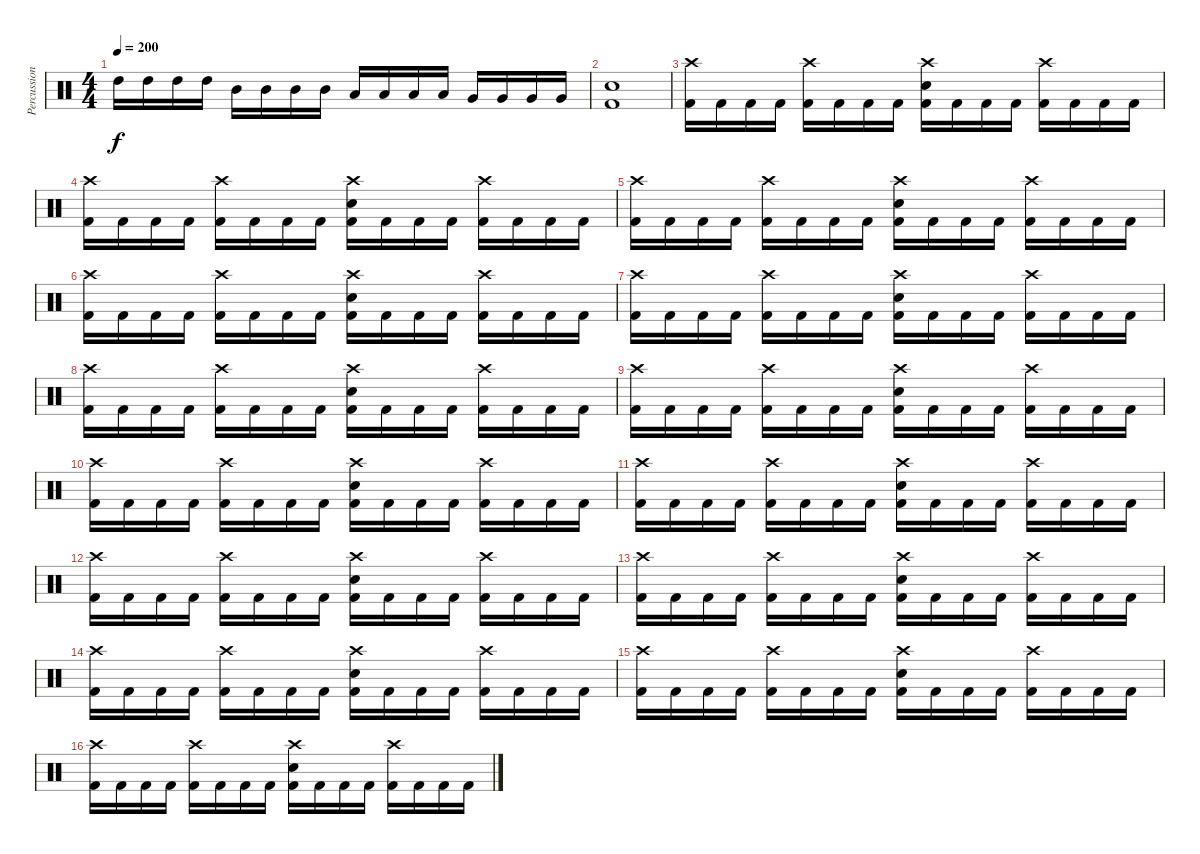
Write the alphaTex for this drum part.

\track ("Percussion" "Percussion") {instrument percussion}
\staff {score}
\articulation defaults
\ts (4 4)
\tempo 200
\clef neutral
\ks c "High Tom (hit)".16{dy f} "High Tom (hit)".16 "High Tom (hit)".16 "High Tom (hit)".16 "Mid Tom (hit)".16 "Mid Tom (hit)".16 "Mid Tom (hit)".16 "Mid Tom (hit)".16 "Low Tom (hit)".16 "Low Tom (hit)".16 "Low Tom (hit)".16 "Low Tom (hit)".16 "Very Low Tom (hit)".16 "Very Low Tom (hit)".16 "Very Low Tom (hit)".16 "Very Low Tom (hit)".16
|
("Snare (hit) 2" "Kick (hit) 2").1 |
("Crash high (hit)" "Kick (hit) 2").16 "Kick (hit) 2".16 "Kick (hit) 2".16 "Kick (hit) 2".16 ("Crash high (hit)" "Kick (hit) 2").16 "Kick (hit) 2".16 "Kick (hit) 2".16 "Kick (hit) 2".16 ("Crash high (hit)" "Kick (hit) 2" "Snare (hit) 2").16 "Kick (hit) 2".16 "Kick (hit) 2".16 "Kick (hit) 2".16 ("Crash high (hit)" "Kick (hit) 2").16 "Kick (hit) 2".16 "Kick (hit) 2".16 "Kick (hit) 2".16 |
("Crash high (hit)" "Kick (hit) 2").16 "Kick (hit) 2".16 "Kick (hit) 2".16 "Kick (hit) 2".16 ("Crash high (hit)" "Kick (hit) 2").16 "Kick (hit) 2".16 "Kick (hit) 2".16 "Kick (hit) 2".16 ("Crash high (hit)" "Kick (hit) 2" "Snare (hit) 2").16 "Kick (hit) 2".16 "Kick (hit) 2".16 "Kick (hit) 2".16 ("Crash high (hit)" "Kick (hit) 2").16 "Kick (hit) 2".16 "Kick (hit) 2".16 "Kick (hit) 2".16 |
("Crash high (hit)" "Kick (hit) 2").16 "Kick (hit) 2".16 "Kick (hit) 2".16 "Kick (hit) 2".16 ("Crash high (hit)" "Kick (hit) 2").16 "Kick (hit) 2".16 "Kick (hit) 2".16 "Kick (hit) 2".16 ("Crash high (hit)" "Kick (hit) 2" "Snare (hit) 2").16 "Kick (hit) 2".16 "Kick (hit) 2".16 "Kick (hit) 2".16 ("Crash high (hit)" "Kick (hit) 2").16 "Kick (hit) 2".16 "Kick (hit) 2".16 "Kick (hit) 2".16 |
("Crash high (hit)" "Kick (hit) 2").16 "Kick (hit) 2".16 "Kick (hit) 2".16 "Kick (hit) 2".16 ("Crash high (hit)" "Kick (hit) 2").16 "Kick (hit) 2".16 "Kick (hit) 2".16 "Kick (hit) 2".16 ("Crash high (hit)" "Kick (hit) 2" "Snare (hit) 2").16 "Kick (hit) 2".16 "Kick (hit) 2".16 "Kick (hit) 2".16 ("Crash high (hit)" "Kick (hit) 2").16 "Kick (hit) 2".16 "Kick (hit) 2".16 "Kick (hit) 2".16 |
("Crash high (hit)" "Kick (hit) 2").16 "Kick (hit) 2".16 "Kick (hit) 2".16 "Kick (hit) 2".16 ("Crash high (hit)" "Kick (hit) 2").16 "Kick (hit) 2".16 "Kick (hit) 2".16 "Kick (hit) 2".16 ("Crash high (hit)" "Kick (hit) 2" "Snare (hit) 2").16 "Kick (hit) 2".16 "Kick (hit) 2".16 "Kick (hit) 2".16 ("Crash high (hit)" "Kick (hit) 2").16 "Kick (hit) 2".16 "Kick (hit) 2".16 "Kick (hit) 2".16 |
("Crash high (hit)" "Kick (hit) 2").16 "Kick (hit) 2".16 "Kick (hit) 2".16 "Kick (hit) 2".16 ("Crash high (hit)" "Kick (hit) 2").16 "Kick (hit) 2".16 "Kick (hit) 2".16 "Kick (hit) 2".16 ("Crash high (hit)" "Kick (hit) 2" "Snare (hit) 2").16 "Kick (hit) 2".16 "Kick (hit) 2".16 "Kick (hit) 2".16 ("Crash high (hit)" "Kick (hit) 2").16 "Kick (hit) 2".16 "Kick (hit) 2".16 "Kick (hit) 2".16 |
("Crash high (hit)" "Kick (hit) 2").16 "Kick (hit) 2".16 "Kick (hit) 2".16 "Kick (hit) 2".16 ("Crash high (hit)" "Kick (hit) 2").16 "Kick (hit) 2".16 "Kick (hit) 2".16 "Kick (hit) 2".16 ("Crash high (hit)" "Kick (hit) 2" "Snare (hit) 2").16 "Kick (hit) 2".16 "Kick (hit) 2".16 "Kick (hit) 2".16 ("Crash high (hit)" "Kick (hit) 2").16 "Kick (hit) 2".16 "Kick (hit) 2".16 "Kick (hit) 2".16 |
("Crash high (hit)" "Kick (hit) 2").16 "Kick (hit) 2".16 "Kick (hit) 2".16 "Kick (hit) 2".16 ("Crash high (hit)" "Kick (hit) 2").16 "Kick (hit) 2".16 "Kick (hit) 2".16 "Kick (hit) 2".16 ("Crash high (hit)" "Kick (hit) 2" "Snare (hit) 2").16 "Kick (hit) 2".16 "Kick (hit) 2".16 "Kick (hit) 2".16 ("Crash high (hit)" "Kick (hit) 2").16 "Kick (hit) 2".16 "Kick (hit) 2".16 "Kick (hit) 2".16 |
("Crash high (hit)" "Kick (hit) 2").16 "Kick (hit) 2".16 "Kick (hit) 2".16 "Kick (hit) 2".16 ("Crash high (hit)" "Kick (hit) 2").16 "Kick (hit) 2".16 "Kick (hit) 2".16 "Kick (hit) 2".16 ("Crash high (hit)" "Kick (hit) 2" "Snare (hit) 2").16 "Kick (hit) 2".16 "Kick (hit) 2".16 "Kick (hit) 2".16 ("Crash high (hit)" "Kick (hit) 2").16 "Kick (hit) 2".16 "Kick (hit) 2".16 "Kick (hit) 2".16 |
("Crash high (hit)" "Kick (hit) 2").16 "Kick (hit) 2".16 "Kick (hit) 2".16 "Kick (hit) 2".16 ("Crash high (hit)" "Kick (hit) 2").16 "Kick (hit) 2".16 "Kick (hit) 2".16 "Kick (hit) 2".16 ("Crash high (hit)" "Kick (hit) 2" "Snare (hit) 2").16 "Kick (hit) 2".16 "Kick (hit) 2".16 "Kick (hit) 2".16 ("Crash high (hit)" "Kick (hit) 2").16 "Kick (hit) 2".16 "Kick (hit) 2".16 "Kick (hit) 2".16 |
("Crash high (hit)" "Kick (hit) 2").16 "Kick (hit) 2".16 "Kick (hit) 2".16 "Kick (hit) 2".16 ("Crash high (hit)" "Kick (hit) 2").16 "Kick (hit) 2".16 "Kick (hit) 2".16 "Kick (hit) 2".16 ("Crash high (hit)" "Kick (hit) 2" "Snare (hit) 2").16 "Kick (hit) 2".16 "Kick (hit) 2".16 "Kick (hit) 2".16 ("Crash high (hit)" "Kick (hit) 2").16 "Kick (hit) 2".16 "Kick (hit) 2".16 "Kick (hit) 2".16 |
("Crash high (hit)" "Kick (hit) 2").16 "Kick (hit) 2".16 "Kick (hit) 2".16 "Kick (hit) 2".16 ("Crash high (hit)" "Kick (hit) 2").16 "Kick (hit) 2".16 "Kick (hit) 2".16 "Kick (hit) 2".16 ("Crash high (hit)" "Kick (hit) 2" "Snare (hit) 2").16 "Kick (hit) 2".16 "Kick (hit) 2".16 "Kick (hit) 2".16 ("Crash high (hit)" "Kick (hit) 2").16 "Kick (hit) 2".16 "Kick (hit) 2".16 "Kick (hit) 2".16 |
("Crash high (hit)" "Kick (hit) 2").16 "Kick (hit) 2".16 "Kick (hit) 2".16 "Kick (hit) 2".16 ("Crash high (hit)" "Kick (hit) 2").16 "Kick (hit) 2".16 "Kick (hit) 2".16 "Kick (hit) 2".16 ("Crash high (hit)" "Kick (hit) 2" "Snare (hit) 2").16 "Kick (hit) 2".16 "Kick (hit) 2".16 "Kick (hit) 2".16 ("Crash high (hit)" "Kick (hit) 2").16 "Kick (hit) 2".16 "Kick (hit) 2".16 "Kick (hit) 2".16 |
("Crash high (hit)" "Kick (hit) 2").16 "Kick (hit) 2".16 "Kick (hit) 2".16 "Kick (hit) 2".16 ("Crash high (hit)" "Kick (hit) 2").16 "Kick (hit) 2".16 "Kick (hit) 2".16 "Kick (hit) 2".16 ("Crash high (hit)" "Kick (hit) 2" "Snare (hit) 2").16 "Kick (hit) 2".16 "Kick (hit) 2".16 "Kick (hit) 2".16 ("Crash high (hit)" "Kick (hit) 2").16 "Kick (hit) 2".16 "Kick (hit) 2".16 "Kick (hit) 2".16
